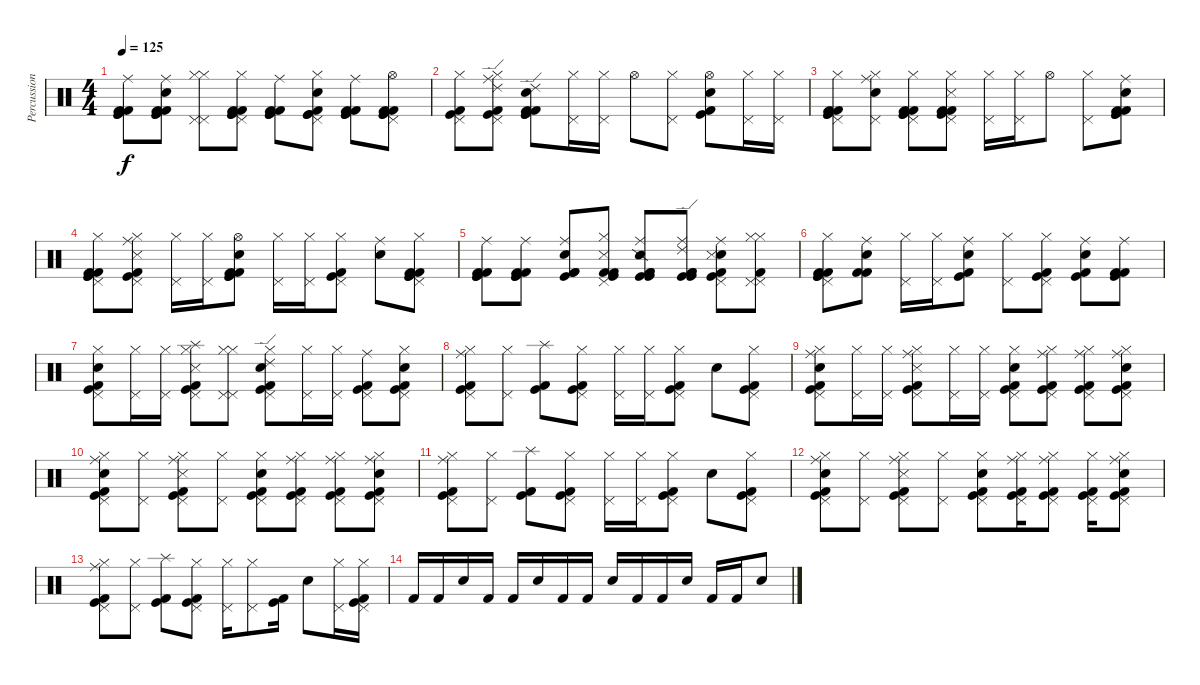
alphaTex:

\track ("Percussion" "Percussion") {instrument percussion}
\staff {score}
\articulation defaults
\ts (4 4)
\tempo 125
\clef neutral
\ks c
("Kick (hit) 2" "Kick (hit) 2" "Kick (hit)" "Kick (hit)" "Ride (middle)").8{dy f} ("Ride (middle)" "Kick (hit) 2" "Kick (hit) 2" "Kick (hit)" "Kick (hit)" "Snare (hit) 2").8 ("Pedal Hi-Hat (hit)" "Hi-Hat (closed)" "Pedal Hi-Hat (hit)" "Hi-Hat (closed)").8 ("Kick (hit) 2" "Kick (hit)" "Kick (hit) 2" "Kick (hit)" "Pedal Hi-Hat (hit)" "Hi-Hat (closed)").8 ("Kick (hit) 2" "Kick (hit)" "Kick (hit) 2" "Kick (hit)" "Ride (middle)").8 ("Snare (hit) 2" "Kick (hit)" "Kick (hit) 2" "Kick (hit)" "Pedal Hi-Hat (hit)" "Hi-Hat (closed)").8 ("Kick (hit) 2" "Kick (hit) 2" "Kick (hit)" "Kick (hit)" "Ride (middle)").8 ("Kick (hit)" "Kick (hit)" "Kick (hit) 2" "Kick (hit) 2" "Pedal Hi-Hat (hit)" "Hi-Hat (open)").8 |
("Kick (hit) 2" "Kick (hit)" "Pedal Hi-Hat (hit)" "Hi-Hat (closed)").8 ("Pedal Hi-Hat (hit)" "Hi-Hat (closed)" "Kick (hit)" "Kick (hit) 2" "Ride (middle)" "Ride (edge) 2").8 ("Kick (hit) 2" "Kick (hit)" "Kick (hit) 2" "Kick (hit)" "Snare (hit) 2" "Ride (edge) 2").8 ("Pedal Hi-Hat (hit)" "Hi-Hat (closed)").16 ("Pedal Hi-Hat (hit)" "Hi-Hat (closed)").16 "Hi-Hat (open)".8 ("Pedal Hi-Hat (hit)" "Hi-Hat (closed)").8 ("Kick (hit)" "Kick (hit) 2" "Snare (hit) 2" "Hi-Hat (open)").8 ("Pedal Hi-Hat (hit)" "Hi-Hat (closed)").16 ("Pedal Hi-Hat (hit)" "Hi-Hat (closed)").16 |
("Pedal Hi-Hat (hit)" "Kick (hit)" "Kick (hit)" "Kick (hit) 2" "Kick (hit) 2" "Hi-Hat (closed)").8 ("Ride (middle)" "Snare (hit) 2" "Pedal Hi-Hat (hit)" "Hi-Hat (closed)").8 ("Kick (hit) 2" "Kick (hit) 2" "Kick (hit)" "Kick (hit)" "Pedal Hi-Hat (hit)" "Hi-Hat (closed)").8 ("Kick (hit) 2" "Kick (hit)" "Kick (hit) 2" "Snare (side stick) 3" "Pedal Hi-Hat (hit)" "Hi-Hat (closed)").8 ("Pedal Hi-Hat (hit)" "Hi-Hat (closed)").16 ("Pedal Hi-Hat (hit)" "Hi-Hat (closed)").16 "Hi-Hat (open)".8 ("Pedal Hi-Hat (hit)" "Hi-Hat (closed)").8 ("Kick (hit) 2" "Kick (hit)" "Kick (hit)" "Kick (hit) 2" "Snare (hit) 2" "Ride (middle)").8 |
("Hi-Hat (closed)" "Pedal Hi-Hat (hit)" "Kick (hit)" "Kick (hit)" "Kick (hit) 2" "Kick (hit) 2").8 ("Pedal Hi-Hat (hit)" "Hi-Hat (closed)" "Snare (side stick) 3" "Kick (hit) 2" "Kick (hit)" "Ride (middle)").8 ("Pedal Hi-Hat (hit)" "Hi-Hat (closed)").16 ("Pedal Hi-Hat (hit)" "Hi-Hat (closed)").16 ("Kick (hit) 2" "Kick (hit) 2" "Kick (hit)" "Kick (hit)" "Snare (hit) 2" "Hi-Hat (open)").8 ("Pedal Hi-Hat (hit)" "Hi-Hat (closed)").16 ("Pedal Hi-Hat (hit)" "Hi-Hat (closed)").16 ("Kick (hit) 2" "Kick (hit)" "Pedal Hi-Hat (hit)" "Hi-Hat (closed)").8 ("Snare (hit) 2" "Ride (middle)").8 ("Kick (hit) 2" "Kick (hit)" "Kick (hit) 2" "Kick (hit)" "Pedal Hi-Hat (hit)" "Hi-Hat (closed)").8 |
("Kick (hit) 2" "Kick (hit) 2" "Kick (hit)" "Kick (hit)" "Ride (middle)").8 ("Kick (hit) 2" "Kick (hit)" "Kick (hit) 2" "Kick (hit)" "Ride (middle)").8 ("Snare (hit) 2" "Kick (hit) 2" "Kick (hit) 2" "Kick (hit)" "Ride (middle)").8 ("Kick (hit) 2" "Snare (side stick) 3" "Kick (hit)" "Kick (hit) 2" "Pedal Hi-Hat (hit)" "Hi-Hat (closed)").8 ("Kick (hit) 2" "Kick (hit) 2" "Kick (hit)" "Kick (hit)" "Ride (middle)" "Snare (side stick) 2").8 ("Kick (hit) 2" "Kick (hit) 2" "Kick (hit)" "Kick (hit)" "Ride (edge) 2" "Ride (middle)").8 ("Ride (middle)" "Snare (hit) 2" "Kick (hit) 2" "Kick (hit)" "Snare (side stick) 3" "Pedal Hi-Hat (hit)").8 ("Pedal Hi-Hat (hit)" "Hi-Hat (closed)" "Kick (hit) 2" "Pedal Hi-Hat (hit)" "Hi-Hat (closed)").8 |
("Kick (hit) 2" "Kick (hit) 2" "Kick (hit)" "Kick (hit)" "Pedal Hi-Hat (hit)" "Hi-Hat (closed)").8 ("Kick (hit) 2" "Kick (hit) 2" "Ride (middle)" "Snare (hit) 2").8 ("Pedal Hi-Hat (hit)" "Hi-Hat (closed)").16 ("Pedal Hi-Hat (hit)" "Hi-Hat (closed)").16 ("Snare (hit) 2" "Kick (hit) 2" "Kick (hit)" "Ride (middle)").8 ("Pedal Hi-Hat (hit)" "Hi-Hat (closed)").8 ("Kick (hit) 2" "Kick (hit)" "Pedal Hi-Hat (hit)" "Hi-Hat (closed)").8 ("Snare (hit) 2" "Kick (hit) 2" "Kick (hit)" "Ride (middle)").8 ("Kick (hit) 2" "Kick (hit)" "Kick (hit) 2" "Ride (middle)").8 |
("Hi-Hat (closed)" "Pedal Hi-Hat (hit)" "Kick (hit)" "Kick (hit) 2" "Snare (hit) 2").8 ("Pedal Hi-Hat (hit)" "Hi-Hat (closed)").16 ("Hi-Hat (closed)" "Pedal Hi-Hat (hit)").16 ("Kick (hit) 2" "Kick (hit)" "Pedal Hi-Hat (hit)" "Hi-Hat (closed)" "Splash (hit)" "Snare (side stick) 3").8 ("Pedal Hi-Hat (hit)" "Hi-Hat (closed)" "Pedal Hi-Hat (hit)" "Hi-Hat (closed)").8 ("Kick (hit) 2" "Kick (hit)" "Snare (hit) 2" "Pedal Hi-Hat (hit)" "Hi-Hat (closed)" "Ride (edge) 2").8 ("Hi-Hat (closed)" "Pedal Hi-Hat (hit)").16 ("Pedal Hi-Hat (hit)" "Hi-Hat (closed)").16 ("Kick (hit) 2" "Kick (hit)" "Pedal Hi-Hat (hit)" "Ride (middle)").8 ("Snare (hit) 2" "Kick (hit) 2" "Kick (hit)" "Pedal Hi-Hat (hit)" "Hi-Hat (closed)").8 |
("Kick (hit) 2" "Kick (hit)" "Pedal Hi-Hat (hit)" "Hi-Hat (closed)" "Ride (middle)").8 ("Pedal Hi-Hat (hit)" "Hi-Hat (closed)").8 ("Kick (hit) 2" "Kick (hit)" "Splash (hit)").8 ("Kick (hit) 2" "Kick (hit)" "Pedal Hi-Hat (hit)" "Hi-Hat (closed)").8 ("Pedal Hi-Hat (hit)" "Hi-Hat (closed)").16 ("Hi-Hat (closed)" "Pedal Hi-Hat (hit)").16 ("Kick (hit) 2" "Kick (hit)" "Pedal Hi-Hat (hit)" "Hi-Hat (closed)").8 "Snare (hit) 2".8 ("Kick (hit) 2" "Kick (hit)" "Pedal Hi-Hat (hit)" "Hi-Hat (closed)").8 |
("Snare (hit) 2" "Kick (hit) 2" "Kick (hit)" "Pedal Hi-Hat (hit)" "Hi-Hat (closed)" "Ride (middle)").8 ("Pedal Hi-Hat (hit)" "Hi-Hat (closed)").16 ("Pedal Hi-Hat (hit)" "Hi-Hat (closed)").16 ("Kick (hit) 2" "Kick (hit)" "Pedal Hi-Hat (hit)" "Hi-Hat (closed)" "Ride (middle)" "Snare (side stick) 3").8 ("Pedal Hi-Hat (hit)" "Hi-Hat (closed)").16 ("Pedal Hi-Hat (hit)" "Hi-Hat (closed)").16 ("Kick (hit) 2" "Kick (hit)" "Snare (hit) 2" "Pedal Hi-Hat (hit)" "Hi-Hat (closed)").8 ("Kick (hit) 2" "Kick (hit)" "Pedal Hi-Hat (hit)" "Hi-Hat (closed)" "Ride (middle)").8 ("Kick (hit) 2" "Kick (hit)" "Pedal Hi-Hat (hit)" "Hi-Hat (closed)" "Ride (middle)").8 ("Snare (hit) 2" "Kick (hit) 2" "Kick (hit)" "Pedal Hi-Hat (hit)" "Hi-Hat (closed)" "Ride (middle)").8 |
("Snare (hit) 2" "Kick (hit) 2" "Kick (hit)" "Pedal Hi-Hat (hit)" "Hi-Hat (closed)" "Ride (middle)").8 ("Pedal Hi-Hat (hit)" "Hi-Hat (closed)").8 ("Kick (hit) 2" "Kick (hit)" "Pedal Hi-Hat (hit)" "Hi-Hat (closed)" "Ride (middle)" "Snare (side stick) 3").8 ("Pedal Hi-Hat (hit)" "Hi-Hat (closed)").8 ("Kick (hit) 2" "Kick (hit)" "Snare (hit) 2" "Pedal Hi-Hat (hit)" "Hi-Hat (closed)").8 ("Kick (hit) 2" "Kick (hit)" "Pedal Hi-Hat (hit)" "Hi-Hat (closed)" "Ride (middle)").8 ("Kick (hit) 2" "Kick (hit)" "Pedal Hi-Hat (hit)" "Hi-Hat (closed)" "Ride (middle)").8 ("Snare (hit) 2" "Kick (hit) 2" "Kick (hit)" "Pedal Hi-Hat (hit)" "Hi-Hat (closed)" "Ride (middle)").8 |
("Kick (hit) 2" "Kick (hit)" "Pedal Hi-Hat (hit)" "Hi-Hat (closed)" "Ride (middle)").8 ("Pedal Hi-Hat (hit)" "Hi-Hat (closed)").8 ("Kick (hit) 2" "Kick (hit)" "Splash (hit)").8 ("Kick (hit) 2" "Kick (hit)" "Pedal Hi-Hat (hit)" "Hi-Hat (closed)").8 ("Pedal Hi-Hat (hit)" "Hi-Hat (closed)").16 ("Hi-Hat (closed)" "Pedal Hi-Hat (hit)").16 ("Kick (hit) 2" "Kick (hit)" "Pedal Hi-Hat (hit)" "Hi-Hat (closed)").8 "Snare (hit) 2".8 ("Kick (hit) 2" "Kick (hit)" "Pedal Hi-Hat (hit)" "Hi-Hat (closed)").8 |
("Snare (hit) 2" "Kick (hit) 2" "Kick (hit)" "Pedal Hi-Hat (hit)" "Hi-Hat (closed)" "Ride (middle)").8 ("Pedal Hi-Hat (hit)" "Hi-Hat (closed)").8 ("Kick (hit) 2" "Kick (hit)" "Pedal Hi-Hat (hit)" "Hi-Hat (closed)" "Ride (middle)" "Snare (side stick) 3").8 ("Pedal Hi-Hat (hit)" "Hi-Hat (closed)").8 ("Kick (hit) 2" "Kick (hit)" "Snare (hit) 2" "Pedal Hi-Hat (hit)" "Hi-Hat (closed)").8 ("Kick (hit) 2" "Kick (hit)" "Pedal Hi-Hat (hit)" "Hi-Hat (closed)" "Ride (middle)").16 ("Kick (hit) 2" "Kick (hit)" "Pedal Hi-Hat (hit)" "Hi-Hat (closed)" "Ride (middle)").8 ("Kick (hit) 2" "Kick (hit)" "Pedal Hi-Hat (hit)" "Hi-Hat (closed)").16 ("Snare (hit) 2" "Kick (hit) 2" "Kick (hit)" "Pedal Hi-Hat (hit)" "Hi-Hat (closed)" "Ride (middle)").8 |
("Kick (hit) 2" "Kick (hit)" "Pedal Hi-Hat (hit)" "Hi-Hat (closed)" "Ride (middle)").8 ("Pedal Hi-Hat (hit)" "Hi-Hat (closed)").8 ("Kick (hit) 2" "Kick (hit)" "Splash (hit)").8 ("Kick (hit) 2" "Kick (hit)" "Pedal Hi-Hat (hit)" "Hi-Hat (closed)").8 ("Pedal Hi-Hat (hit)" "Hi-Hat (closed)").16 ("Hi-Hat (closed)" "Pedal Hi-Hat (hit)").8 ("Kick (hit)" "Kick (hit) 2").16 "Snare (hit) 2".8 ("Pedal Hi-Hat (hit)" "Hi-Hat (closed)").16 ("Kick (hit) 2" "Kick (hit)" "Pedal Hi-Hat (hit)" "Hi-Hat (closed)").16 |
"Kick (hit) 2".16 "Kick (hit) 2".16 "Snare (hit) 2".16 "Kick (hit) 2".16 "Kick (hit) 2".16 "Snare (hit) 2".16 "Kick (hit) 2".16 "Kick (hit) 2".16 "Snare (hit) 2".16 "Kick (hit) 2".16 "Kick (hit) 2".16 "Snare (hit) 2".16 "Kick (hit) 2".16 "Kick (hit) 2".16 "Snare (hit) 2".8
